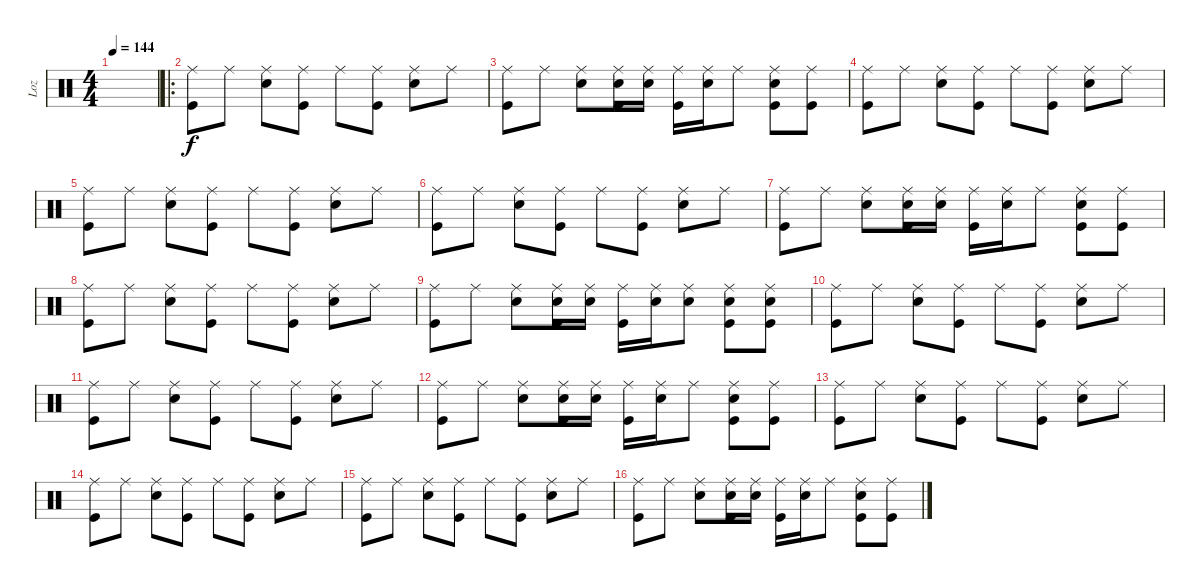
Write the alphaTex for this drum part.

\track ("Loz" "Loz") {instrument percussion}
\staff {score}
\articulation defaults
\ts (4 4)
\tempo 144
\clef neutral
\ks c
|
\ro
("Ride (middle)" "Kick (hit)").8 "Ride (middle)".8 ("Ride (middle)" "Electric Snare (hit)").8 ("Ride (middle)" "Kick (hit)").8 "Ride (middle)".8 ("Ride (middle)" "Kick (hit)").8 ("Ride (middle)" "Electric Snare (hit)").8 "Ride (middle)".8 |
("Ride (middle)" "Kick (hit)").8 "Ride (middle)".8 ("Ride (middle)" "Electric Snare (hit)").8 ("Ride (middle)" "Electric Snare (hit)" "Kick (hit)").16 ("Ride (middle)" "Electric Snare (hit)").16 ("Ride (middle)" "Kick (hit)").16 ("Ride (middle)" "Electric Snare (hit)").16 "Ride (middle)".8 ("Ride (middle)" "Electric Snare (hit)" "Kick (hit)").8 ("Ride (middle)" "Kick (hit)").8 |
("Ride (middle)" "Kick (hit)").8 "Ride (middle)".8 ("Ride (middle)" "Electric Snare (hit)").8 ("Ride (middle)" "Kick (hit)").8 "Ride (middle)".8 ("Ride (middle)" "Kick (hit)").8 ("Ride (middle)" "Electric Snare (hit)").8 "Ride (middle)".8 |
("Ride (middle)" "Kick (hit)").8 "Ride (middle)".8 ("Ride (middle)" "Electric Snare (hit)").8 ("Ride (middle)" "Kick (hit)").8 "Ride (middle)".8 ("Ride (middle)" "Kick (hit)").8 ("Ride (middle)" "Electric Snare (hit)").8 "Ride (middle)".8 |
("Ride (middle)" "Kick (hit)").8 "Ride (middle)".8 ("Ride (middle)" "Electric Snare (hit)").8 ("Ride (middle)" "Kick (hit)").8 "Ride (middle)".8 ("Ride (middle)" "Kick (hit)").8 ("Ride (middle)" "Electric Snare (hit)").8 "Ride (middle)".8 |
("Ride (middle)" "Kick (hit)").8 "Ride (middle)".8 ("Ride (middle)" "Electric Snare (hit)").8 ("Ride (middle)" "Electric Snare (hit)" "Kick (hit)").16 ("Ride (middle)" "Electric Snare (hit)").16 ("Ride (middle)" "Kick (hit)").16 ("Ride (middle)" "Electric Snare (hit)").16 "Ride (middle)".8 ("Ride (middle)" "Electric Snare (hit)" "Kick (hit)").8 ("Ride (middle)" "Kick (hit)").8 |
("Ride (middle)" "Kick (hit)").8 "Ride (middle)".8 ("Ride (middle)" "Electric Snare (hit)").8 ("Ride (middle)" "Kick (hit)").8 "Ride (middle)".8 ("Ride (middle)" "Kick (hit)").8 ("Ride (middle)" "Electric Snare (hit)").8 "Ride (middle)".8 |
("Ride (middle)" "Kick (hit)").8 "Ride (middle)".8 ("Ride (middle)" "Electric Snare (hit)").8 ("Ride (middle)" "Electric Snare (hit)" "Kick (hit)").16 ("Ride (middle)" "Electric Snare (hit)").16 ("Ride (middle)" "Kick (hit)").16 ("Ride (middle)" "Electric Snare (hit)").16 ("Ride (middle)" "Electric Snare (hit)").8 ("Ride (middle)" "Electric Snare (hit)" "Kick (hit)").8 ("Ride (middle)" "Electric Snare (hit)" "Kick (hit)").8 |
("Ride (middle)" "Kick (hit)").8 "Ride (middle)".8 ("Ride (middle)" "Electric Snare (hit)").8 ("Ride (middle)" "Kick (hit)").8 "Ride (middle)".8 ("Ride (middle)" "Kick (hit)").8 ("Ride (middle)" "Electric Snare (hit)").8 "Ride (middle)".8 |
("Ride (middle)" "Kick (hit)").8 "Ride (middle)".8 ("Ride (middle)" "Electric Snare (hit)").8 ("Ride (middle)" "Kick (hit)").8 "Ride (middle)".8 ("Ride (middle)" "Kick (hit)").8 ("Ride (middle)" "Electric Snare (hit)").8 "Ride (middle)".8 |
("Ride (middle)" "Kick (hit)").8 "Ride (middle)".8 ("Ride (middle)" "Electric Snare (hit)").8 ("Ride (middle)" "Electric Snare (hit)" "Kick (hit)").16 ("Ride (middle)" "Electric Snare (hit)").16 ("Ride (middle)" "Kick (hit)").16 ("Ride (middle)" "Electric Snare (hit)").16 "Ride (middle)".8 ("Ride (middle)" "Electric Snare (hit)" "Kick (hit)").8 ("Ride (middle)" "Kick (hit)").8 |
("Ride (middle)" "Kick (hit)").8 "Ride (middle)".8 ("Ride (middle)" "Electric Snare (hit)").8 ("Ride (middle)" "Kick (hit)").8 "Ride (middle)".8 ("Ride (middle)" "Kick (hit)").8 ("Ride (middle)" "Electric Snare (hit)").8 "Ride (middle)".8 |
("Ride (middle)" "Kick (hit)").8 "Ride (middle)".8 ("Ride (middle)" "Electric Snare (hit)").8 ("Ride (middle)" "Kick (hit)").8 "Ride (middle)".8 ("Ride (middle)" "Kick (hit)").8 ("Ride (middle)" "Electric Snare (hit)").8 "Ride (middle)".8 |
("Ride (middle)" "Kick (hit)").8 "Ride (middle)".8 ("Ride (middle)" "Electric Snare (hit)").8 ("Ride (middle)" "Kick (hit)").8 "Ride (middle)".8 ("Ride (middle)" "Kick (hit)").8 ("Ride (middle)" "Electric Snare (hit)").8 "Ride (middle)".8 |
("Ride (middle)" "Kick (hit)").8 "Ride (middle)".8 ("Ride (middle)" "Electric Snare (hit)").8 ("Ride (middle)" "Electric Snare (hit)" "Kick (hit)").16 ("Ride (middle)" "Electric Snare (hit)").16 ("Ride (middle)" "Kick (hit)").16 ("Ride (middle)" "Electric Snare (hit)").16 "Ride (middle)".8 ("Ride (middle)" "Electric Snare (hit)" "Kick (hit)").8 ("Ride (middle)" "Kick (hit)").8
